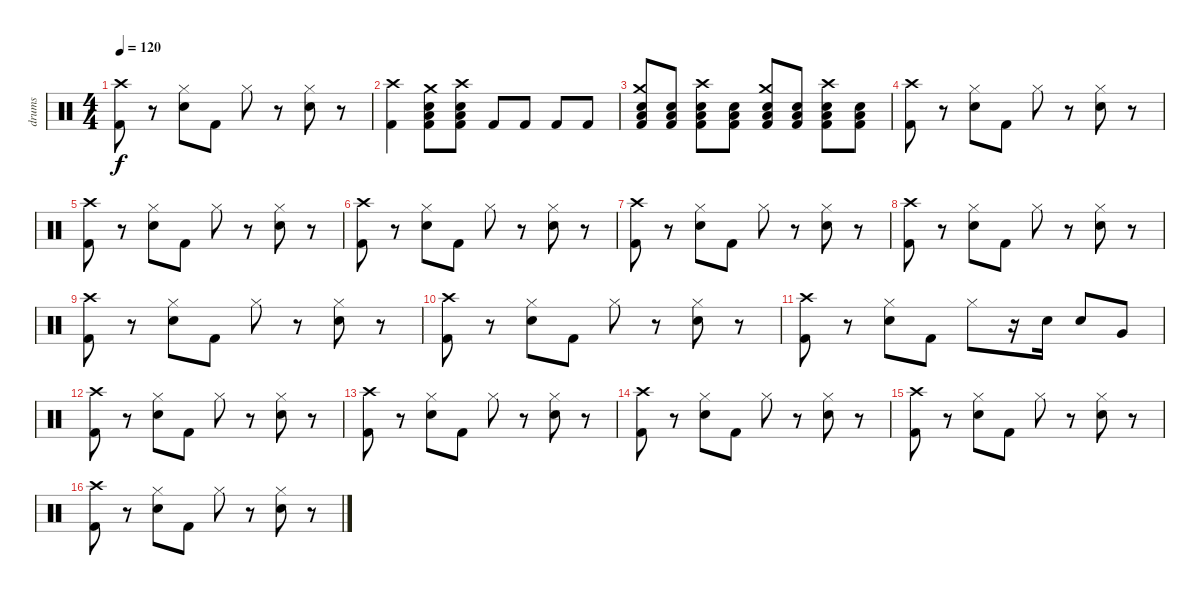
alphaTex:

\track ("drums" "drums") {instrument percussion}
\staff {score}
\articulation defaults
\ts (4 4)
\tempo 120
\clef neutral
\ks c
("Crash high (hit)" "Kick (hit) 2").8{dy f} r.8 ("Hi-Hat (closed)" "Snare (hit) 2").8 "Kick (hit) 2".8 "Hi-Hat (closed)".8 r.8 ("Hi-Hat (closed)" "Snare (hit) 2").8 r.8 |
("Crash high (hit)" "Kick (hit) 2").4 ("Crash medium (hit)" "Low Floor Tom (hit)" "Snare (hit) 2" "Kick (hit) 2").8 ("Crash high (hit)" "Low Floor Tom (hit)" "Snare (hit) 2" "Kick (hit) 2").8 "Kick (hit) 2".8 "Kick (hit) 2".8 "Kick (hit) 2".8 "Kick (hit) 2".8 |
("Crash medium (hit)" "Snare (hit) 2" "Low Floor Tom (hit)" "Kick (hit) 2").8 ("Snare (hit) 2" "Low Floor Tom (hit)" "Kick (hit) 2").8 ("Crash high (hit)" "Snare (hit) 2" "Low Floor Tom (hit)" "Kick (hit) 2").8 ("Snare (hit) 2" "Low Floor Tom (hit)" "Kick (hit) 2").8 ("Crash medium (hit)" "Snare (hit) 2" "Low Floor Tom (hit)" "Kick (hit) 2").8 ("Snare (hit) 2" "Low Floor Tom (hit)" "Kick (hit) 2").8 ("Crash high (hit)" "Snare (hit) 2" "Low Floor Tom (hit)" "Kick (hit) 2").8 ("Snare (hit) 2" "Low Floor Tom (hit)" "Kick (hit) 2").8 |
("Crash high (hit)" "Kick (hit) 2").8 r.8 ("Hi-Hat (closed)" "Snare (hit) 2").8 "Kick (hit) 2".8 "Hi-Hat (closed)".8 r.8 ("Hi-Hat (closed)" "Snare (hit) 2").8 r.8 |
("Crash high (hit)" "Kick (hit) 2").8 r.8 ("Hi-Hat (closed)" "Snare (hit) 2").8 "Kick (hit) 2".8 "Hi-Hat (closed)".8 r.8 ("Hi-Hat (closed)" "Snare (hit) 2").8 r.8 |
("Crash high (hit)" "Kick (hit) 2").8 r.8 ("Hi-Hat (closed)" "Snare (hit) 2").8 "Kick (hit) 2".8 "Hi-Hat (closed)".8 r.8 ("Hi-Hat (closed)" "Snare (hit) 2").8 r.8 |
("Crash high (hit)" "Kick (hit) 2").8 r.8 ("Hi-Hat (closed)" "Snare (hit) 2").8 "Kick (hit) 2".8 "Hi-Hat (closed)".8 r.8 ("Hi-Hat (closed)" "Snare (hit) 2").8 r.8 |
("Crash high (hit)" "Kick (hit) 2").8 r.8 ("Hi-Hat (closed)" "Snare (hit) 2").8 "Kick (hit) 2".8 "Hi-Hat (closed)".8 r.8 ("Hi-Hat (closed)" "Snare (hit) 2").8 r.8 |
("Crash high (hit)" "Kick (hit) 2").8 r.8 ("Hi-Hat (closed)" "Snare (hit) 2").8 "Kick (hit) 2".8 "Hi-Hat (closed)".8 r.8 ("Hi-Hat (closed)" "Snare (hit) 2").8 r.8 |
("Crash high (hit)" "Kick (hit) 2").8 r.8 ("Hi-Hat (closed)" "Snare (hit) 2").8 "Kick (hit) 2".8 "Hi-Hat (closed)".8 r.8 ("Hi-Hat (closed)" "Snare (hit) 2").8 r.8 |
("Crash high (hit)" "Kick (hit) 2").8 r.8 ("Hi-Hat (closed)" "Snare (hit) 2").8 "Kick (hit) 2".8 "Hi-Hat (closed)".8 r.16 "Snare (hit) 2".16 "Snare (hit) 2".8 "Very Low Tom (hit)".8 |
("Crash high (hit)" "Kick (hit) 2").8 r.8 ("Hi-Hat (closed)" "Snare (hit) 2").8 "Kick (hit) 2".8 "Hi-Hat (closed)".8 r.8 ("Hi-Hat (closed)" "Snare (hit) 2").8 r.8 |
("Crash high (hit)" "Kick (hit) 2").8 r.8 ("Hi-Hat (closed)" "Snare (hit) 2").8 "Kick (hit) 2".8 "Hi-Hat (closed)".8 r.8 ("Hi-Hat (closed)" "Snare (hit) 2").8 r.8 |
("Crash high (hit)" "Kick (hit) 2").8 r.8 ("Hi-Hat (closed)" "Snare (hit) 2").8 "Kick (hit) 2".8 "Hi-Hat (closed)".8 r.8 ("Hi-Hat (closed)" "Snare (hit) 2").8 r.8 |
("Crash high (hit)" "Kick (hit) 2").8 r.8 ("Hi-Hat (closed)" "Snare (hit) 2").8 "Kick (hit) 2".8 "Hi-Hat (closed)".8 r.8 ("Hi-Hat (closed)" "Snare (hit) 2").8 r.8 |
("Crash high (hit)" "Kick (hit) 2").8 r.8 ("Hi-Hat (closed)" "Snare (hit) 2").8 "Kick (hit) 2".8 "Hi-Hat (closed)".8 r.8 ("Hi-Hat (closed)" "Snare (hit) 2").8 r.8
